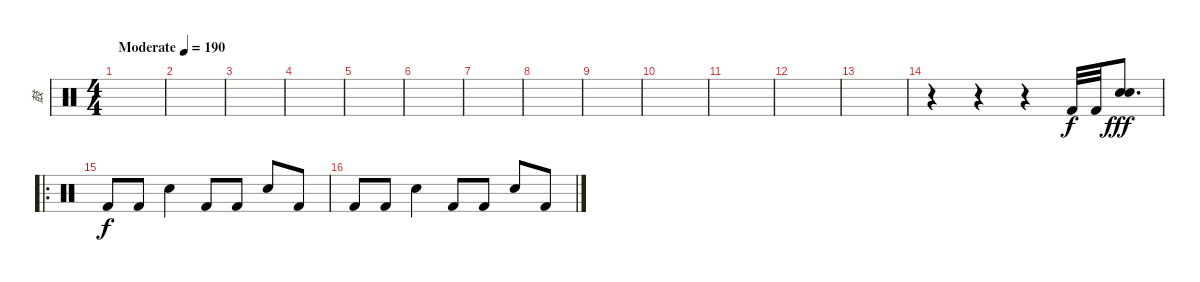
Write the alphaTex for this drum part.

\track ("鼓" "鼓") {instrument percussion}
\staff {score}
\articulation defaults
\ts (4 4)
\tempo (190 "Moderate")
\clef neutral
\ks c
|
|
|
|
|
|
|
|
|
|
|
|
|
r.4 r.4 r.4 "Kick (hit) 2".32 "Kick (hit) 2".32 ("Electric Snare (hit)" "Electric Snare (hit)").8{d dy fff} |
\ro "Kick (hit) 2".8{dy f} "Kick (hit) 2".8 "Electric Snare (hit)".4 "Kick (hit) 2".8 "Kick (hit) 2".8 "Electric Snare (hit)".8 "Kick (hit) 2".8
|
"Kick (hit) 2".8 "Kick (hit) 2".8 "Electric Snare (hit)".4 "Kick (hit) 2".8 "Kick (hit) 2".8 "Electric Snare (hit)".8 "Kick (hit) 2".8
